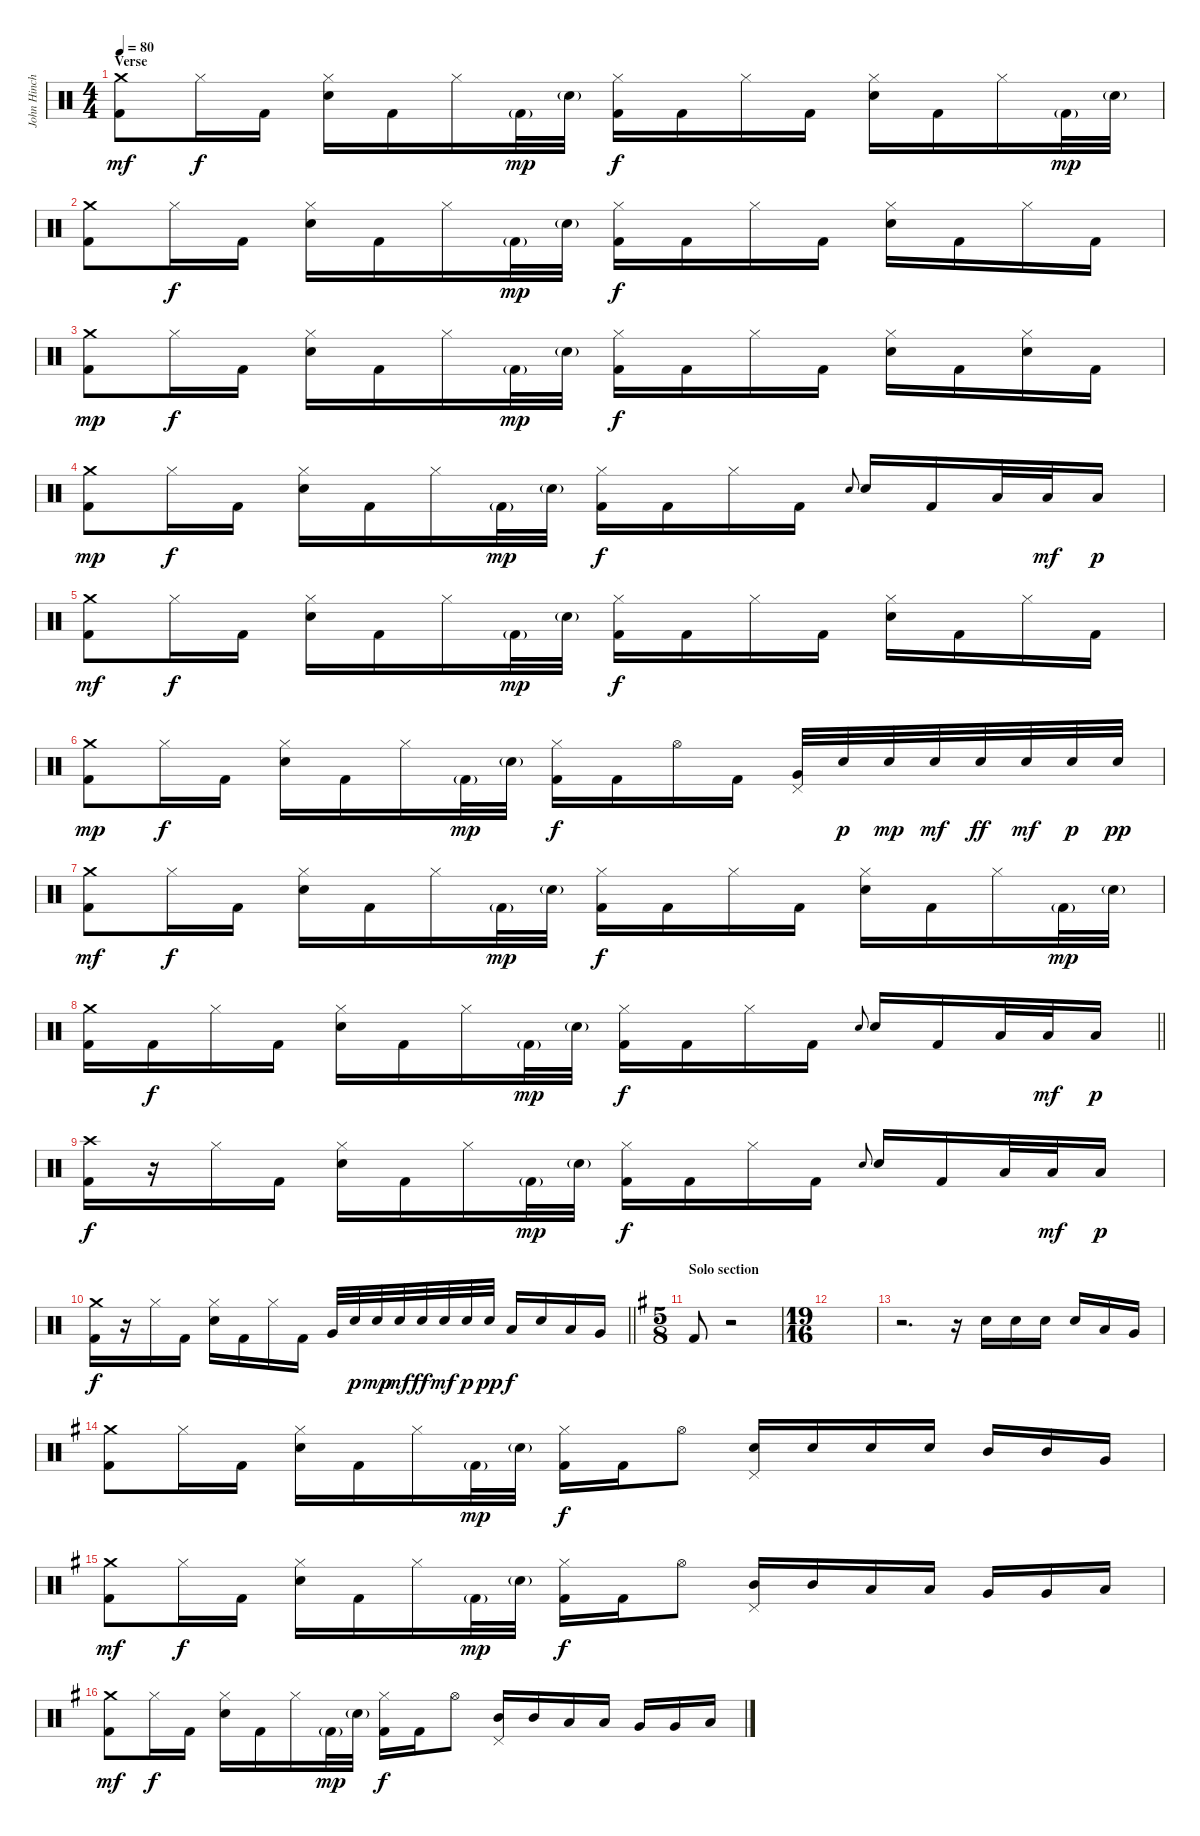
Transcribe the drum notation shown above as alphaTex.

\track ("John Hinch" "John Hinch") {instrument percussion}
\staff {score}
\articulation defaults
\ts (4 4)
\section ("" "Verse")
\tempo 80
\clef neutral
\ks c
("Crash medium (hit)" "Kick (hit) 2").8{dy mf} "Hi-Hat (closed)".16{dy f} "Kick (hit) 2".16 ("Hi-Hat (closed)" "Electric Snare (hit)").16 "Kick (hit) 2".16 "Hi-Hat (closed)".16 "Kick (hit) 2"{g}.32{dy mp} "Electric Snare (hit)"{g}.32 ("Hi-Hat (closed)" "Kick (hit) 2").16{dy f} "Kick (hit) 2".16 "Hi-Hat (closed)".16 "Kick (hit) 2".16 ("Hi-Hat (closed)" "Electric Snare (hit)").16 "Kick (hit) 2".16 "Hi-Hat (closed)".16 "Kick (hit) 2"{g}.32{dy mp} "Electric Snare (hit)"{g}.32 |
("Crash medium (hit)" "Kick (hit) 2").8 "Hi-Hat (closed)".16{dy f} "Kick (hit) 2".16 ("Hi-Hat (closed)" "Electric Snare (hit)").16 "Kick (hit) 2".16 "Hi-Hat (closed)".16 "Kick (hit) 2"{g}.32{dy mp} "Electric Snare (hit)"{g}.32 ("Hi-Hat (closed)" "Kick (hit) 2").16{dy f} "Kick (hit) 2".16 "Hi-Hat (closed)".16 "Kick (hit) 2".16 ("Hi-Hat (closed)" "Electric Snare (hit)").16 "Kick (hit) 2".16 "Hi-Hat (closed)".16 "Kick (hit) 2".16 |
("Crash medium (hit)" "Kick (hit) 2").8{dy mp} "Hi-Hat (closed)".16{dy f} "Kick (hit) 2".16 ("Hi-Hat (closed)" "Electric Snare (hit)").16 "Kick (hit) 2".16 "Hi-Hat (closed)".16 "Kick (hit) 2"{g}.32{dy mp} "Electric Snare (hit)"{g}.32 ("Hi-Hat (closed)" "Kick (hit) 2").16{dy f} "Kick (hit) 2".16 "Hi-Hat (closed)".16 "Kick (hit) 2".16 ("Hi-Hat (closed)" "Electric Snare (hit)").16 "Kick (hit) 2".16 ("Hi-Hat (closed)" "Electric Snare (hit)").16 "Kick (hit) 2".16 |
("Crash medium (hit)" "Kick (hit) 2").8{dy mp} "Hi-Hat (closed)".16{dy f} "Kick (hit) 2".16 ("Hi-Hat (closed)" "Electric Snare (hit)").16 "Kick (hit) 2".16 "Hi-Hat (closed)".16 "Kick (hit) 2"{g}.32{dy mp} "Electric Snare (hit)"{g}.32 ("Hi-Hat (closed)" "Kick (hit) 2").16{dy f} "Kick (hit) 2".16 "Hi-Hat (closed)".16 "Kick (hit) 2".16 "Electric Snare (hit)".8{gr onbeat} "Electric Snare (hit)".16 "Kick (hit) 2".16 "Low Tom (hit)".32 "Low Tom (hit)".32{dy mf} "Low Tom (hit)".16{dy p} |
("Crash medium (hit)" "Kick (hit) 2").8{dy mf} "Hi-Hat (closed)".16{dy f} "Kick (hit) 2".16 ("Hi-Hat (closed)" "Electric Snare (hit)").16 "Kick (hit) 2".16 "Hi-Hat (closed)".16 "Kick (hit) 2"{g}.32{dy mp} "Electric Snare (hit)"{g}.32 ("Hi-Hat (closed)" "Kick (hit) 2").16{dy f} "Kick (hit) 2".16 "Hi-Hat (closed)".16 "Kick (hit) 2".16 ("Hi-Hat (closed)" "Electric Snare (hit)").16 "Kick (hit) 2".16 "Hi-Hat (closed)".16 "Kick (hit) 2".16 |
("Crash medium (hit)" "Kick (hit) 2").8{dy mp} "Hi-Hat (closed)".16{dy f} "Kick (hit) 2".16 ("Hi-Hat (closed)" "Electric Snare (hit)").16 "Kick (hit) 2".16 "Hi-Hat (closed)".16 "Kick (hit) 2"{g}.32{dy mp} "Electric Snare (hit)"{g}.32 ("Hi-Hat (closed)" "Kick (hit) 2").16{dy f} "Kick (hit) 2".16 "Hi-Hat (open)".16 "Kick (hit) 2".16 ("Pedal Hi-Hat (hit)" "Very Low Tom (hit)").32 "Electric Snare (hit)".32{dy p} "Electric Snare (hit)".32{dy mp} "Electric Snare (hit)".32{dy mf} "Electric Snare (hit)".32{dy ff} "Electric Snare (hit)".32{dy mf} "Electric Snare (hit)".32{dy p} "Electric Snare (hit)".32{dy pp} |
("Crash medium (hit)" "Kick (hit) 2").8{dy mf} "Hi-Hat (closed)".16{dy f} "Kick (hit) 2".16 ("Hi-Hat (closed)" "Electric Snare (hit)").16 "Kick (hit) 2".16 "Hi-Hat (closed)".16 "Kick (hit) 2"{g}.32{dy mp} "Electric Snare (hit)"{g}.32 ("Hi-Hat (closed)" "Kick (hit) 2").16{dy f} "Kick (hit) 2".16 "Hi-Hat (closed)".16 "Kick (hit) 2".16 ("Hi-Hat (closed)" "Electric Snare (hit)").16 "Kick (hit) 2".16 "Hi-Hat (closed)".16 "Kick (hit) 2"{g}.32{dy mp} "Electric Snare (hit)"{g}.32 |
\barLineRight lightlight
("Crash medium (hit)" "Kick (hit) 2").16 "Kick (hit) 2".16{dy f} "Hi-Hat (closed)".16 "Kick (hit) 2".16 ("Hi-Hat (closed)" "Electric Snare (hit)").16 "Kick (hit) 2".16 "Hi-Hat (closed)".16 "Kick (hit) 2"{g}.32{dy mp} "Electric Snare (hit)"{g}.32 ("Hi-Hat (closed)" "Kick (hit) 2").16{dy f} "Kick (hit) 2".16 "Hi-Hat (closed)".16 "Kick (hit) 2".16 "Electric Snare (hit)".8{gr onbeat} "Electric Snare (hit)".16 "Kick (hit) 2".16 "Low Tom (hit)".32 "Low Tom (hit)".32{dy mf} "Low Tom (hit)".16{dy p} |
("Crash high (hit)" "Kick (hit) 2").16{dy f} r.16 "Hi-Hat (closed)".16 "Kick (hit) 2".16 ("Hi-Hat (closed)" "Electric Snare (hit)").16 "Kick (hit) 2".16 "Hi-Hat (closed)".16 "Kick (hit) 2"{g}.32{dy mp} "Electric Snare (hit)"{g}.32 ("Hi-Hat (closed)" "Kick (hit) 2").16{dy f} "Kick (hit) 2".16 "Hi-Hat (closed)".16 "Kick (hit) 2".16 "Electric Snare (hit)".8{gr onbeat} "Electric Snare (hit)".16 "Kick (hit) 2".16 "Low Tom (hit)".32 "Low Tom (hit)".32{dy mf} "Low Tom (hit)".16{dy p} |
\barLineRight lightlight
("Crash medium (hit)" "Kick (hit) 2").16{dy f} r.16 "Hi-Hat (closed)".16 "Kick (hit) 2".16 ("Hi-Hat (closed)" "Electric Snare (hit)").16 "Kick (hit) 2".16 "Hi-Hat (closed)".16 "Kick (hit) 2".16 "Very Low Tom (hit)".32 "Electric Snare (hit)".32{dy p} "Electric Snare (hit)".32{dy mp} "Electric Snare (hit)".32{dy mf} "Electric Snare (hit)".32{dy ff} "Electric Snare (hit)".32{dy mf} "Electric Snare (hit)".32{dy p} "Electric Snare (hit)".32{dy pp} "Low Floor Tom (hit)".16{dy f} "Electric Snare (hit)".16 "Low Tom (hit)".16 "Very Low Tom (hit)".16 |
\ts (5 8)
\section ("" "Solo section")
\ks eminor "Kick (hit) 2".8
r.2 |
\ts (19 16)
|
r.2{d} r.16 "Electric Snare (hit)".16 "Electric Snare (hit)".16 "Electric Snare (hit)".16 "Electric Snare (hit)".16 "Low Tom (hit)".16 "Very Low Tom (hit)".16 |
("Crash medium (hit)" "Kick (hit) 2").8 "Hi-Hat (closed)".16 "Kick (hit) 2".16 ("Hi-Hat (closed)" "Electric Snare (hit)").16 "Kick (hit) 2".16 "Hi-Hat (closed)".16 "Kick (hit) 2"{g}.32{dy mp} "Electric Snare (hit)"{g}.32 ("Hi-Hat (closed)" "Kick (hit) 2").16{dy f} "Kick (hit) 2".16 "Hi-Hat (open)".8 ("Pedal Hi-Hat (hit)" "Electric Snare (hit)").16 "Electric Snare (hit)".16 "Electric Snare (hit)".16 "Electric Snare (hit)".16 "Mid Tom (hit)".16 "Mid Tom (hit)".16 "Very Low Tom (hit)".16 |
("Crash medium (hit)" "Kick (hit) 2").8{dy mf} "Hi-Hat (closed)".16{dy f} "Kick (hit) 2".16 ("Hi-Hat (closed)" "Electric Snare (hit)").16 "Kick (hit) 2".16 "Hi-Hat (closed)".16 "Kick (hit) 2"{g}.32{dy mp} "Electric Snare (hit)"{g}.32 ("Hi-Hat (closed)" "Kick (hit) 2").16{dy f} "Kick (hit) 2".16 "Hi-Hat (open)".8 ("Pedal Hi-Hat (hit)" "Mid Tom (hit)").16 "Mid Tom (hit)".16 "Low Tom (hit)".16 "Low Tom (hit)".16 "Very Low Tom (hit)".16 "Very Low Tom (hit)".16 "Low Floor Tom (hit)".16 |
("Crash medium (hit)" "Kick (hit) 2").8{dy mf} "Hi-Hat (closed)".16{dy f} "Kick (hit) 2".16 ("Hi-Hat (closed)" "Electric Snare (hit)").16 "Kick (hit) 2".16 "Hi-Hat (closed)".16 "Kick (hit) 2"{g}.32{dy mp} "Electric Snare (hit)"{g}.32 ("Hi-Hat (closed)" "Kick (hit) 2").16{dy f} "Kick (hit) 2".16 "Hi-Hat (open)".8 ("Pedal Hi-Hat (hit)" "Mid Tom (hit)").16 "Mid Tom (hit)".16 "Low Tom (hit)".16 "Low Tom (hit)".16 "Very Low Tom (hit)".16 "Very Low Tom (hit)".16 "Low Floor Tom (hit)".16
